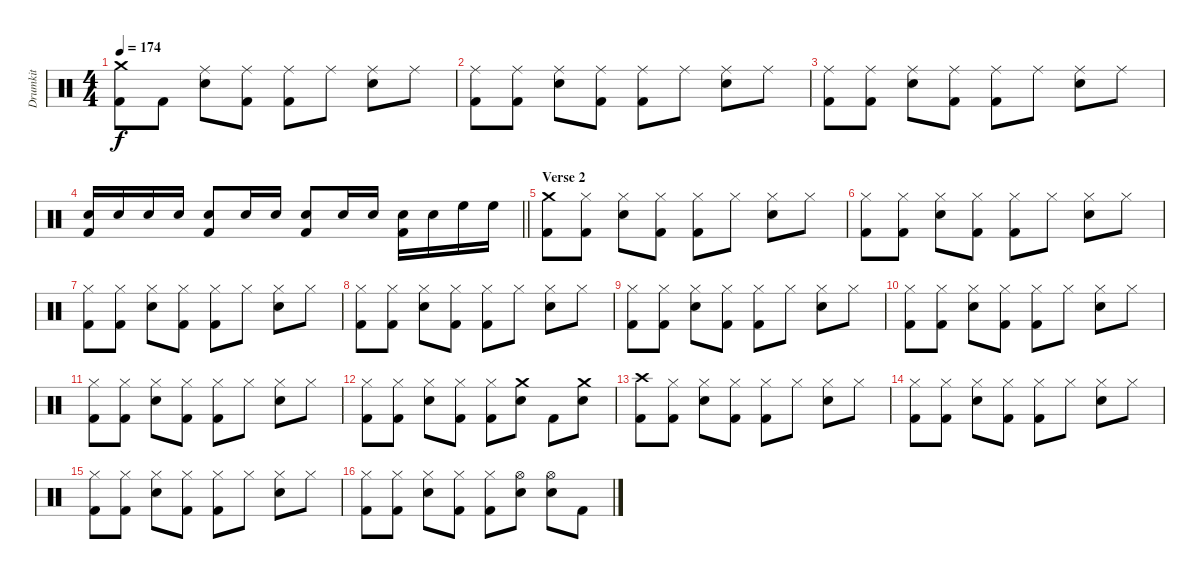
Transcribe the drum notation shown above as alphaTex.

\track ("Drumkit" "Drumkit") {instrument percussion}
\staff {score}
\articulation defaults
\ts (4 4)
\tempo 174
\clef neutral
\ks c
("Crash medium (hit)" "Kick (hit) 2").8{dy f} "Kick (hit) 2".8 ("Ride (middle)" "Snare (hit) 2").8 ("Ride (middle)" "Kick (hit) 2").8 ("Ride (middle)" "Kick (hit) 2").8 "Ride (middle)".8 ("Ride (middle)" "Snare (hit) 2").8 "Ride (middle)".8 |
("Ride (middle)" "Kick (hit) 2").8 ("Ride (middle)" "Kick (hit) 2").8 ("Ride (middle)" "Snare (hit) 2").8 ("Ride (middle)" "Kick (hit) 2").8 ("Ride (middle)" "Kick (hit) 2").8 "Ride (middle)".8 ("Ride (middle)" "Snare (hit) 2").8 "Ride (middle)".8 |
("Ride (middle)" "Kick (hit) 2").8 ("Ride (middle)" "Kick (hit) 2").8 ("Ride (middle)" "Snare (hit) 2").8 ("Ride (middle)" "Kick (hit) 2").8 ("Ride (middle)" "Kick (hit) 2").8 "Ride (middle)".8 ("Ride (middle)" "Snare (hit) 2").8 "Ride (middle)".8 |
\barLineRight lightlight
("Snare (hit) 2" "Kick (hit) 2").16 "Snare (hit) 2".16 "Snare (hit) 2".16 "Snare (hit) 2".16 ("Snare (hit) 2" "Kick (hit) 2").8 "Snare (hit) 2".16 "Snare (hit) 2".16 ("Snare (hit) 2" "Kick (hit) 2").8 "Snare (hit) 2".16 "Snare (hit) 2".16 ("Snare (hit) 2" "Kick (hit) 2").16 "Snare (hit) 2".16 "High Floor Tom (hit)".16 "High Floor Tom (hit)".16 |
\section ("" "Verse 2")
("Crash medium (hit)" "Kick (hit) 2").8 ("Hi-Hat (closed)" "Kick (hit) 2").8 ("Hi-Hat (closed)" "Snare (hit) 2").8 ("Hi-Hat (closed)" "Kick (hit) 2").8 ("Hi-Hat (closed)" "Kick (hit) 2").8 "Hi-Hat (closed)".8 ("Hi-Hat (closed)" "Snare (hit) 2").8 "Hi-Hat (closed)".8 |
("Hi-Hat (closed)" "Kick (hit) 2").8 ("Hi-Hat (closed)" "Kick (hit) 2").8 ("Hi-Hat (closed)" "Snare (hit) 2").8 ("Hi-Hat (closed)" "Kick (hit) 2").8 ("Hi-Hat (closed)" "Kick (hit) 2").8 "Hi-Hat (closed)".8 ("Hi-Hat (closed)" "Snare (hit) 2").8 "Hi-Hat (closed)".8 |
("Hi-Hat (closed)" "Kick (hit) 2").8 ("Hi-Hat (closed)" "Kick (hit) 2").8 ("Hi-Hat (closed)" "Snare (hit) 2").8 ("Hi-Hat (closed)" "Kick (hit) 2").8 ("Hi-Hat (closed)" "Kick (hit) 2").8 "Hi-Hat (closed)".8 ("Hi-Hat (closed)" "Snare (hit) 2").8 "Hi-Hat (closed)".8 |
("Hi-Hat (closed)" "Kick (hit) 2").8 ("Hi-Hat (closed)" "Kick (hit) 2").8 ("Hi-Hat (closed)" "Snare (hit) 2").8 ("Hi-Hat (closed)" "Kick (hit) 2").8 ("Hi-Hat (closed)" "Kick (hit) 2").8 "Hi-Hat (closed)".8 ("Hi-Hat (closed)" "Snare (hit) 2").8 "Hi-Hat (closed)".8 |
("Hi-Hat (closed)" "Kick (hit) 2").8 ("Hi-Hat (closed)" "Kick (hit) 2").8 ("Hi-Hat (closed)" "Snare (hit) 2").8 ("Hi-Hat (closed)" "Kick (hit) 2").8 ("Hi-Hat (closed)" "Kick (hit) 2").8 "Hi-Hat (closed)".8 ("Hi-Hat (closed)" "Snare (hit) 2").8 "Hi-Hat (closed)".8 |
("Hi-Hat (closed)" "Kick (hit) 2").8 ("Hi-Hat (closed)" "Kick (hit) 2").8 ("Hi-Hat (closed)" "Snare (hit) 2").8 ("Hi-Hat (closed)" "Kick (hit) 2").8 ("Hi-Hat (closed)" "Kick (hit) 2").8 "Hi-Hat (closed)".8 ("Hi-Hat (closed)" "Snare (hit) 2").8 "Hi-Hat (closed)".8 |
("Hi-Hat (closed)" "Kick (hit) 2").8 ("Hi-Hat (closed)" "Kick (hit) 2").8 ("Hi-Hat (closed)" "Snare (hit) 2").8 ("Hi-Hat (closed)" "Kick (hit) 2").8 ("Hi-Hat (closed)" "Kick (hit) 2").8 "Hi-Hat (closed)".8 ("Hi-Hat (closed)" "Snare (hit) 2").8 "Hi-Hat (closed)".8 |
("Hi-Hat (closed)" "Kick (hit) 2").8 ("Hi-Hat (closed)" "Kick (hit) 2").8 ("Hi-Hat (closed)" "Snare (hit) 2").8 ("Hi-Hat (closed)" "Kick (hit) 2").8 ("Hi-Hat (closed)" "Kick (hit) 2").8 ("Crash medium (hit)" "Snare (hit) 2").8 "Kick (hit) 2".8 ("Crash medium (hit)" "Snare (hit) 2").8 |
("Crash high (hit)" "Kick (hit) 2").8 ("Hi-Hat (closed)" "Kick (hit) 2").8 ("Hi-Hat (closed)" "Snare (hit) 2").8 ("Hi-Hat (closed)" "Kick (hit) 2").8 ("Hi-Hat (closed)" "Kick (hit) 2").8 "Hi-Hat (closed)".8 ("Hi-Hat (closed)" "Snare (hit) 2").8 "Hi-Hat (closed)".8 |
("Hi-Hat (closed)" "Kick (hit) 2").8 ("Hi-Hat (closed)" "Kick (hit) 2").8 ("Hi-Hat (closed)" "Snare (hit) 2").8 ("Hi-Hat (closed)" "Kick (hit) 2").8 ("Hi-Hat (closed)" "Kick (hit) 2").8 "Hi-Hat (closed)".8 ("Hi-Hat (closed)" "Snare (hit) 2").8 "Hi-Hat (closed)".8 |
("Hi-Hat (closed)" "Kick (hit) 2").8 ("Hi-Hat (closed)" "Kick (hit) 2").8 ("Hi-Hat (closed)" "Snare (hit) 2").8 ("Hi-Hat (closed)" "Kick (hit) 2").8 ("Hi-Hat (closed)" "Kick (hit) 2").8 "Hi-Hat (closed)".8 ("Hi-Hat (closed)" "Snare (hit) 2").8 "Hi-Hat (closed)".8 |
("Hi-Hat (closed)" "Kick (hit) 2").8 ("Hi-Hat (closed)" "Kick (hit) 2").8 ("Hi-Hat (closed)" "Snare (hit) 2").8 ("Hi-Hat (closed)" "Kick (hit) 2").8 ("Hi-Hat (closed)" "Kick (hit) 2").8 ("Hi-Hat (open)" "Snare (hit) 2").8 ("Hi-Hat (open)" "Snare (hit) 2").8 "Kick (hit) 2".8
